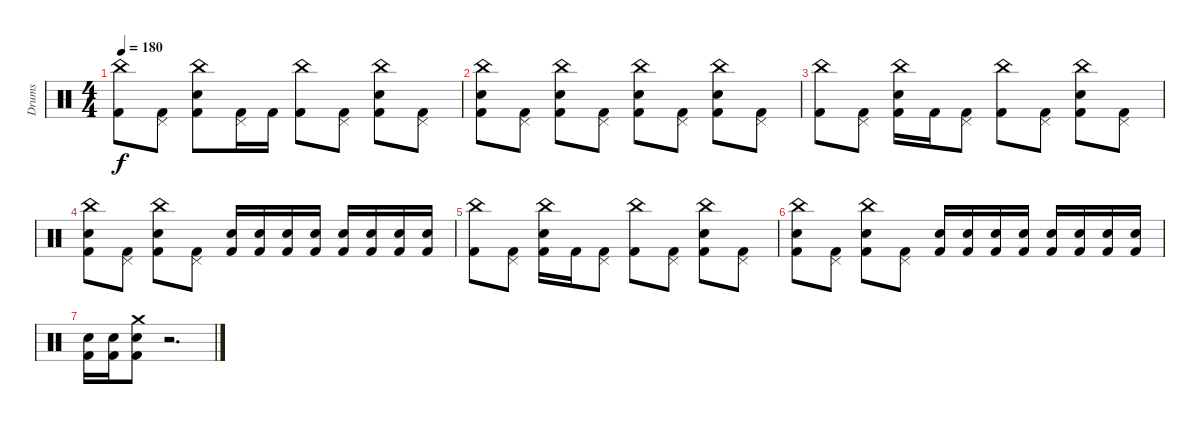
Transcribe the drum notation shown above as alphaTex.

\track ("Drums" "Drums") {instrument percussion}
\staff {score}
\articulation defaults
\ts (4 4)
\tempo 180
\clef neutral
\ks c
("China (hit)" "Kick (hit) 2").8{dy f} ("Pedal Hi-Hat (hit)" "Kick (hit) 2").8 ("China (hit)" "Snare (hit) 2" "Kick (hit) 2").8 ("Pedal Hi-Hat (hit)" "Kick (hit) 2").16 "Kick (hit) 2".16 ("China (hit)" "Kick (hit) 2").8 ("Pedal Hi-Hat (hit)" "Kick (hit) 2").8 ("China (hit)" "Snare (hit) 2" "Kick (hit) 2").8 ("Pedal Hi-Hat (hit)" "Kick (hit) 2").8 |
("China (hit)" "Snare (hit) 2" "Kick (hit) 2").8 ("Pedal Hi-Hat (hit)" "Kick (hit) 2").8 ("China (hit)" "Snare (hit) 2" "Kick (hit) 2").8 ("Pedal Hi-Hat (hit)" "Kick (hit) 2").8 ("China (hit)" "Snare (hit) 2" "Kick (hit) 2").8 ("Pedal Hi-Hat (hit)" "Kick (hit) 2").8 ("China (hit)" "Snare (hit) 2" "Kick (hit) 2").8 ("Pedal Hi-Hat (hit)" "Kick (hit) 2").8 |
("China (hit)" "Kick (hit) 2").8 ("Pedal Hi-Hat (hit)" "Kick (hit) 2").8 ("China (hit)" "Snare (hit) 2" "Kick (hit) 2").16 "Kick (hit) 2".16 ("Pedal Hi-Hat (hit)" "Kick (hit) 2").8 ("China (hit)" "Kick (hit) 2").8 ("Pedal Hi-Hat (hit)" "Kick (hit) 2").8 ("China (hit)" "Snare (hit) 2" "Kick (hit) 2").8 ("Pedal Hi-Hat (hit)" "Kick (hit) 2").8 |
("China (hit)" "Snare (hit) 2" "Kick (hit) 2").8 ("Pedal Hi-Hat (hit)" "Kick (hit) 2").8 ("China (hit)" "Snare (hit) 2" "Kick (hit) 2").8 ("Pedal Hi-Hat (hit)" "Kick (hit) 2").8 ("Snare (hit) 2" "Kick (hit) 2").16 ("Snare (hit) 2" "Kick (hit) 2").16 ("Snare (hit) 2" "Kick (hit) 2").16 ("Snare (hit) 2" "Kick (hit) 2").16 ("Snare (hit) 2" "Kick (hit) 2").16 ("Snare (hit) 2" "Kick (hit) 2").16 ("Snare (hit) 2" "Kick (hit) 2").16 ("Snare (hit) 2" "Kick (hit) 2").16 |
("China (hit)" "Kick (hit) 2").8 ("Pedal Hi-Hat (hit)" "Kick (hit) 2").8 ("China (hit)" "Snare (hit) 2" "Kick (hit) 2").16 "Kick (hit) 2".16 ("Pedal Hi-Hat (hit)" "Kick (hit) 2").8 ("China (hit)" "Kick (hit) 2").8 ("Pedal Hi-Hat (hit)" "Kick (hit) 2").8 ("China (hit)" "Snare (hit) 2" "Kick (hit) 2").8 ("Pedal Hi-Hat (hit)" "Kick (hit) 2").8 |
("China (hit)" "Snare (hit) 2" "Kick (hit) 2").8 ("Pedal Hi-Hat (hit)" "Kick (hit) 2").8 ("China (hit)" "Snare (hit) 2" "Kick (hit) 2").8 ("Pedal Hi-Hat (hit)" "Kick (hit) 2").8 ("Snare (hit) 2" "Kick (hit) 2").16 ("Snare (hit) 2" "Kick (hit) 2").16 ("Snare (hit) 2" "Kick (hit) 2").16 ("Snare (hit) 2" "Kick (hit) 2").16 ("Snare (hit) 2" "Kick (hit) 2").16 ("Snare (hit) 2" "Kick (hit) 2").16 ("Snare (hit) 2" "Kick (hit) 2").16 ("Snare (hit) 2" "Kick (hit) 2").16 |
("Snare (hit) 2" "Kick (hit) 2").16 ("Snare (hit) 2" "Kick (hit) 2").16 ("Crash medium (hit)" "Snare (hit) 2" "Kick (hit) 2").8 r.2{d}
